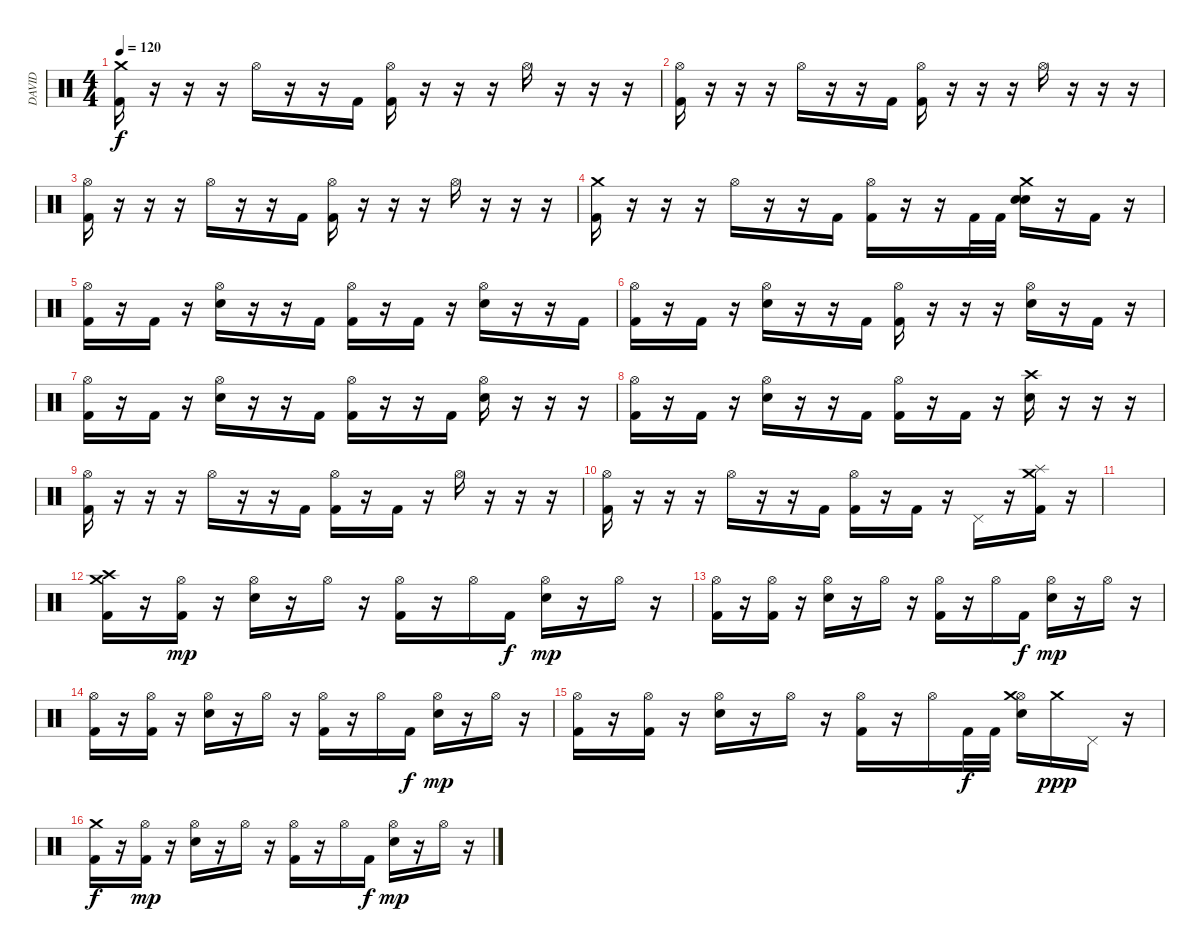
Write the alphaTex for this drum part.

\track ("DAVID" "DAVID") {instrument percussion}
\staff {score}
\articulation defaults
\ts (4 4)
\tempo 120
\clef neutral
\ks c
("Crash medium (hit)" "Kick (hit) 2").16{dy f} r.16 r.16 r.16 "Hi-Hat (open)".16 r.16 r.16 "Kick (hit) 2".16 ("Hi-Hat (open)" "Kick (hit) 2").16 r.16 r.16 r.16 "Hi-Hat (open)".16 r.16 r.16 r.16 |
("Hi-Hat (open)" "Kick (hit) 2").16 r.16 r.16 r.16 "Hi-Hat (open)".16 r.16 r.16 "Kick (hit) 2".16 ("Hi-Hat (open)" "Kick (hit) 2").16 r.16 r.16 r.16 "Hi-Hat (open)".16 r.16 r.16 r.16 |
("Hi-Hat (open)" "Kick (hit) 2").16 r.16 r.16 r.16 "Hi-Hat (open)".16 r.16 r.16 "Kick (hit) 2".16 ("Hi-Hat (open)" "Kick (hit) 2").16 r.16 r.16 r.16 "Hi-Hat (open)".16 r.16 r.16 r.16 |
("Crash medium (hit)" "Kick (hit) 2").16 r.16 r.16 r.16 "Hi-Hat (open)".16 r.16 r.16 "Kick (hit) 2".16 ("Hi-Hat (open)" "Kick (hit) 2").16 r.16 r.16 "Kick (hit) 2".32 "Kick (hit) 2".32 ("Crash medium (hit)" "Electric Snare (hit)" "Snare (hit) 2").16 r.16 "Kick (hit) 2".16 r.16 |
("Hi-Hat (open)" "Kick (hit) 2").16 r.16 "Kick (hit) 2".16 r.16 ("Hi-Hat (open)" "Snare (hit) 2").16 r.16 r.16 "Kick (hit) 2".16 ("Hi-Hat (open)" "Kick (hit) 2").16 r.16 "Kick (hit) 2".16 r.16 ("Hi-Hat (open)" "Snare (hit) 2").16 r.16 r.16 "Kick (hit) 2".16 |
("Hi-Hat (open)" "Kick (hit) 2").16 r.16 "Kick (hit) 2".16 r.16 ("Hi-Hat (open)" "Snare (hit) 2").16 r.16 r.16 "Kick (hit) 2".16 ("Hi-Hat (open)" "Kick (hit) 2").16 r.16 r.16 r.16 ("Hi-Hat (open)" "Snare (hit) 2").16 r.16 "Kick (hit) 2".16 r.16 |
("Hi-Hat (open)" "Kick (hit) 2").16 r.16 "Kick (hit) 2".16 r.16 ("Hi-Hat (open)" "Snare (hit) 2").16 r.16 r.16 "Kick (hit) 2".16 ("Hi-Hat (open)" "Kick (hit) 2").16 r.16 r.16 "Kick (hit) 2".16 ("Hi-Hat (open)" "Snare (hit) 2").16 r.16 r.16 r.16 |
("Hi-Hat (open)" "Kick (hit) 2").16 r.16 "Kick (hit) 2".16 r.16 ("Hi-Hat (open)" "Snare (hit) 2").16 r.16 r.16 "Kick (hit) 2".16 ("Hi-Hat (open)" "Kick (hit) 2").16 r.16 "Kick (hit) 2".16 r.16 ("Crash high (hit)" "Snare (hit) 2").16 r.16 r.16 r.16 |
("Hi-Hat (open)" "Kick (hit) 2").16 r.16 r.16 r.16 "Hi-Hat (open)".16 r.16 r.16 "Kick (hit) 2".16 ("Hi-Hat (open)" "Kick (hit) 2").16 r.16 "Kick (hit) 2".16 r.16 "Hi-Hat (open)".16 r.16 r.16 r.16 |
("Hi-Hat (open)" "Kick (hit) 2").16 r.16 r.16 r.16 "Hi-Hat (open)".16 r.16 r.16 "Kick (hit) 2".16 ("Hi-Hat (open)" "Kick (hit) 2").16 r.16 "Kick (hit) 2".16 r.16 "Pedal Hi-Hat (hit)".16 r.16 ("Crash medium (hit)" "Splash (hit)" "Kick (hit) 2").16 r.16 |
|
("Crash medium (hit)" "Crash high (hit)" "Kick (hit) 2").16 r.16 ("Hi-Hat (open)" "Kick (hit) 2").16{dy mp} r.16 ("Hi-Hat (open)" "Snare (hit) 2").16 r.16 "Hi-Hat (open)".16 r.16 ("Hi-Hat (open)" "Kick (hit) 2").16 r.16 "Hi-Hat (open)".16 "Kick (hit) 2".16{dy f} ("Hi-Hat (open)" "Snare (hit) 2").16{dy mp} r.16 "Hi-Hat (open)".16 r.16 |
("Hi-Hat (open)" "Kick (hit) 2").16 r.16 ("Hi-Hat (open)" "Kick (hit) 2").16 r.16 ("Hi-Hat (open)" "Snare (hit) 2").16 r.16 "Hi-Hat (open)".16 r.16 ("Hi-Hat (open)" "Kick (hit) 2").16 r.16 "Hi-Hat (open)".16 "Kick (hit) 2".16{dy f} ("Hi-Hat (open)" "Snare (hit) 2").16{dy mp} r.16 "Hi-Hat (open)".16 r.16 |
("Hi-Hat (open)" "Kick (hit) 2").16 r.16 ("Hi-Hat (open)" "Kick (hit) 2").16 r.16 ("Hi-Hat (open)" "Snare (hit) 2").16 r.16 "Hi-Hat (open)".16 r.16 ("Hi-Hat (open)" "Kick (hit) 2").16 r.16 "Hi-Hat (open)".16 "Kick (hit) 2".16{dy f} ("Hi-Hat (open)" "Snare (hit) 2").16{dy mp} r.16 "Hi-Hat (open)".16 r.16 |
("Hi-Hat (open)" "Kick (hit) 2").16 r.16 ("Hi-Hat (open)" "Kick (hit) 2").16 r.16 ("Hi-Hat (open)" "Snare (hit) 2").16 r.16 "Hi-Hat (open)".16 r.16 ("Hi-Hat (open)" "Kick (hit) 2").16 r.16 "Hi-Hat (open)".16 "Kick (hit) 2".32{dy f} "Kick (hit) 2".32 ("Hi-Hat (open)" "Crash medium (hit)" "Snare (hit) 2").16 "Crash medium (hit)".16{dy ppp} "Pedal Hi-Hat (hit)".16 r.16 |
("Crash medium (hit)" "Kick (hit) 2").16{dy f} r.16 ("Hi-Hat (open)" "Kick (hit) 2").16{dy mp} r.16 ("Hi-Hat (open)" "Snare (hit) 2").16 r.16 "Hi-Hat (open)".16 r.16 ("Hi-Hat (open)" "Kick (hit) 2").16 r.16 "Hi-Hat (open)".16 "Kick (hit) 2".16{dy f} ("Hi-Hat (open)" "Snare (hit) 2").16{dy mp} r.16 "Hi-Hat (open)".16 r.16
